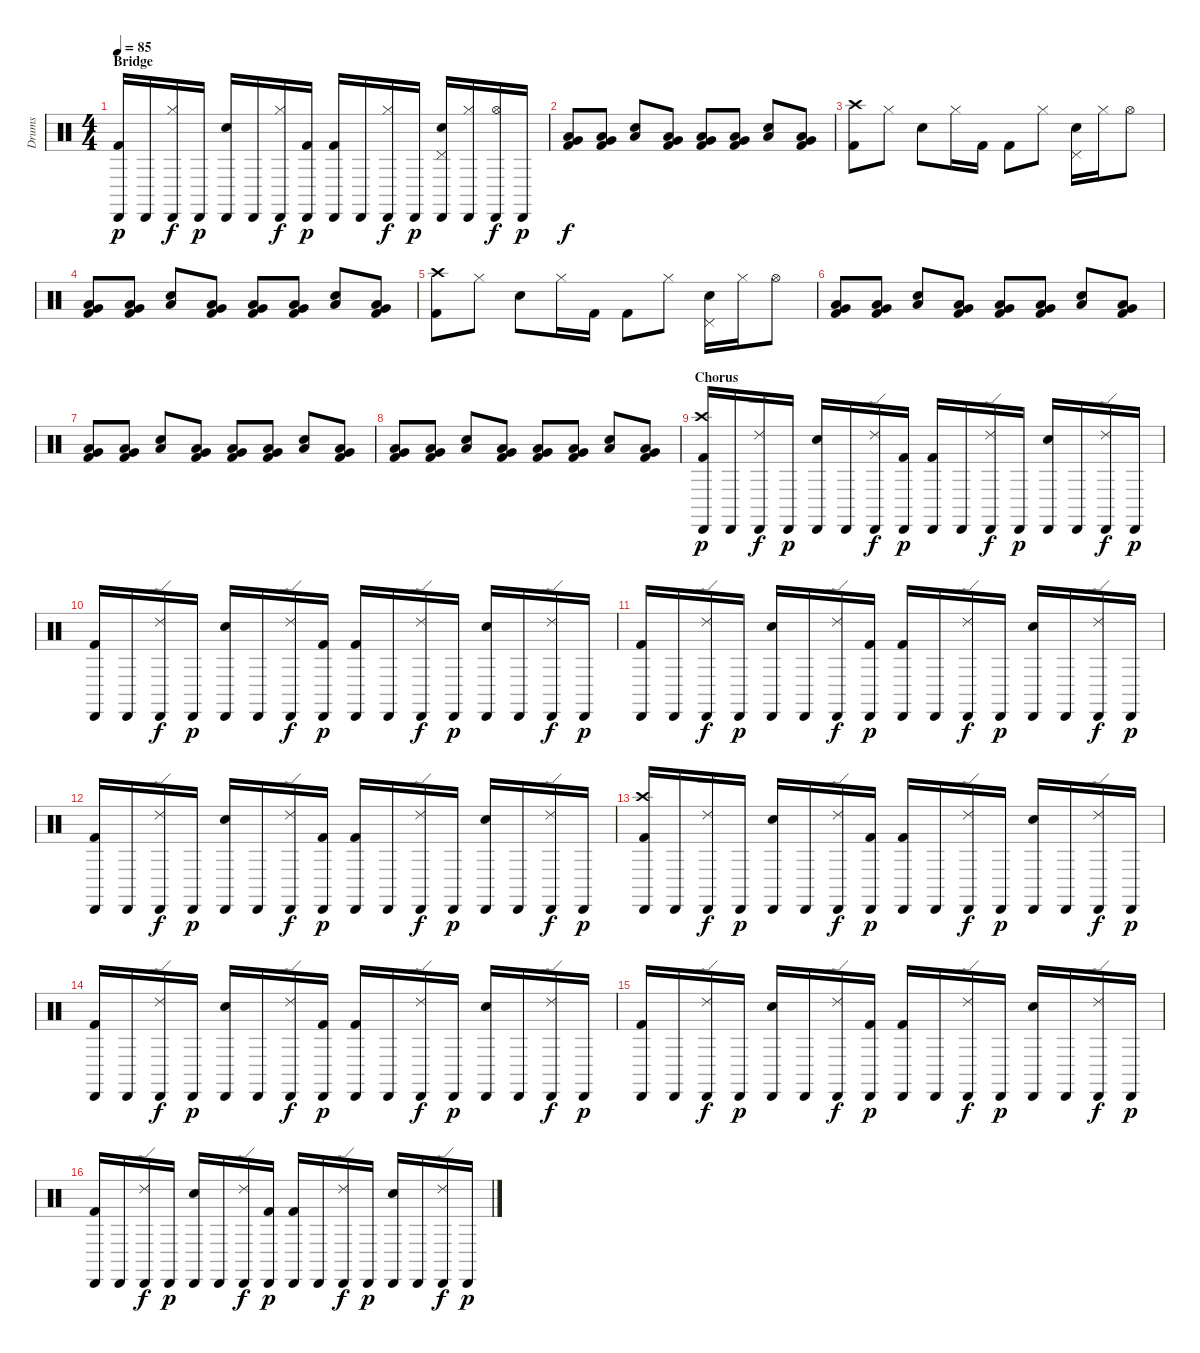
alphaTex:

\track ("Drums" "Drums") {instrument percussion}
\staff {score}
\articulation defaults
\ts (4 4)
\section ("" "Bridge")
\tempo 85
\clef neutral
\ks c
("Cabasa (hit)" "Kick (hit) 2").16{dy p} "Cabasa (hit)".16 ("Cabasa (hit)" "Hi-Hat (closed)").16{dy f} "Cabasa (hit)".16{dy p} ("Cabasa (hit)" "Electric Snare (hit)").16 "Cabasa (hit)".16 ("Cabasa (hit)" "Hi-Hat (closed)").16{dy f} ("Cabasa (hit)" "Kick (hit) 2").16{dy p} ("Cabasa (hit)" "Kick (hit) 2").16 "Cabasa (hit)".16 ("Cabasa (hit)" "Hi-Hat (closed)").16{dy f} "Cabasa (hit)".16{dy p} ("Cabasa (hit)" "Pedal Hi-Hat (hit)" "Electric Snare (hit)").16 ("Cabasa (hit)" "Hi-Hat (closed)").16 ("Cabasa (hit)" "Hi-Hat (open)").16{dy f} "Cabasa (hit)".16{dy p} |
("Low Floor Tom (hit)" "Very Low Tom (hit)" "Kick (hit) 2").8{dy f} ("Low Floor Tom (hit)" "Very Low Tom (hit)" "Kick (hit) 2").8 ("Low Floor Tom (hit)" "Electric Snare (hit)").8 ("Low Floor Tom (hit)" "Very Low Tom (hit)" "Kick (hit) 2").8 ("Low Floor Tom (hit)" "Very Low Tom (hit)" "Kick (hit) 2").8 ("Low Floor Tom (hit)" "Very Low Tom (hit)" "Kick (hit) 2").8 ("Low Floor Tom (hit)" "Electric Snare (hit)").8 ("Low Floor Tom (hit)" "Very Low Tom (hit)" "Kick (hit) 2").8 |
("Crash high (hit)" "Kick (hit) 2").8 "Hi-Hat (closed)".8 "Electric Snare (hit)".8 "Hi-Hat (closed)".16 "Kick (hit) 2".16 "Kick (hit) 2".8 "Hi-Hat (closed)".8 ("Pedal Hi-Hat (hit)" "Electric Snare (hit)").16 "Hi-Hat (closed)".16 "Hi-Hat (open)".8 |
("Low Floor Tom (hit)" "Very Low Tom (hit)" "Kick (hit) 2").8 ("Low Floor Tom (hit)" "Very Low Tom (hit)" "Kick (hit) 2").8 ("Low Floor Tom (hit)" "Electric Snare (hit)").8 ("Low Floor Tom (hit)" "Very Low Tom (hit)" "Kick (hit) 2").8 ("Low Floor Tom (hit)" "Very Low Tom (hit)" "Kick (hit) 2").8 ("Low Floor Tom (hit)" "Very Low Tom (hit)" "Kick (hit) 2").8 ("Low Floor Tom (hit)" "Electric Snare (hit)").8 ("Low Floor Tom (hit)" "Very Low Tom (hit)" "Kick (hit) 2").8 |
("Crash high (hit)" "Kick (hit) 2").8 "Hi-Hat (closed)".8 "Electric Snare (hit)".8 "Hi-Hat (closed)".16 "Kick (hit) 2".16 "Kick (hit) 2".8 "Hi-Hat (closed)".8 ("Pedal Hi-Hat (hit)" "Electric Snare (hit)").16 "Hi-Hat (closed)".16 "Hi-Hat (open)".8 |
("Low Floor Tom (hit)" "Very Low Tom (hit)" "Kick (hit) 2").8 ("Low Floor Tom (hit)" "Very Low Tom (hit)" "Kick (hit) 2").8 ("Low Floor Tom (hit)" "Electric Snare (hit)").8 ("Low Floor Tom (hit)" "Very Low Tom (hit)" "Kick (hit) 2").8 ("Low Floor Tom (hit)" "Very Low Tom (hit)" "Kick (hit) 2").8 ("Low Floor Tom (hit)" "Very Low Tom (hit)" "Kick (hit) 2").8 ("Low Floor Tom (hit)" "Electric Snare (hit)").8 ("Low Floor Tom (hit)" "Very Low Tom (hit)" "Kick (hit) 2").8 |
("Low Floor Tom (hit)" "Very Low Tom (hit)" "Kick (hit) 2").8 ("Low Floor Tom (hit)" "Very Low Tom (hit)" "Kick (hit) 2").8 ("Low Floor Tom (hit)" "Electric Snare (hit)").8 ("Low Floor Tom (hit)" "Very Low Tom (hit)" "Kick (hit) 2").8 ("Low Floor Tom (hit)" "Very Low Tom (hit)" "Kick (hit) 2").8 ("Low Floor Tom (hit)" "Very Low Tom (hit)" "Kick (hit) 2").8 ("Low Floor Tom (hit)" "Electric Snare (hit)").8 ("Low Floor Tom (hit)" "Very Low Tom (hit)" "Kick (hit) 2").8 |
("Low Floor Tom (hit)" "Very Low Tom (hit)" "Kick (hit) 2").8 ("Low Floor Tom (hit)" "Very Low Tom (hit)" "Kick (hit) 2").8 ("Low Floor Tom (hit)" "Electric Snare (hit)").8 ("Low Floor Tom (hit)" "Very Low Tom (hit)" "Kick (hit) 2").8 ("Low Floor Tom (hit)" "Very Low Tom (hit)" "Kick (hit) 2").8 ("Low Floor Tom (hit)" "Very Low Tom (hit)" "Kick (hit) 2").8 ("Low Floor Tom (hit)" "Electric Snare (hit)").8 ("Low Floor Tom (hit)" "Very Low Tom (hit)" "Kick (hit) 2").8 |
\section ("" "Chorus")
("Cabasa (hit)" "Crash high (hit)" "Kick (hit) 2").16{dy p} "Cabasa (hit)".16 ("Cabasa (hit)" "Ride (edge) 2").16{dy f} "Cabasa (hit)".16{dy p} ("Cabasa (hit)" "Electric Snare (hit)").16 "Cabasa (hit)".16 ("Cabasa (hit)" "Ride (edge) 2").16{dy f} ("Cabasa (hit)" "Kick (hit) 2").16{dy p} ("Cabasa (hit)" "Kick (hit) 2").16 "Cabasa (hit)".16 ("Cabasa (hit)" "Ride (edge) 2").16{dy f} "Cabasa (hit)".16{dy p} ("Cabasa (hit)" "Electric Snare (hit)").16 "Cabasa (hit)".16 ("Cabasa (hit)" "Ride (edge) 2").16{dy f} "Cabasa (hit)".16{dy p} |
("Cabasa (hit)" "Kick (hit) 2").16 "Cabasa (hit)".16 ("Cabasa (hit)" "Ride (edge) 2").16{dy f} "Cabasa (hit)".16{dy p} ("Cabasa (hit)" "Electric Snare (hit)").16 "Cabasa (hit)".16 ("Cabasa (hit)" "Ride (edge) 2").16{dy f} ("Cabasa (hit)" "Kick (hit) 2").16{dy p} ("Cabasa (hit)" "Kick (hit) 2").16 "Cabasa (hit)".16 ("Cabasa (hit)" "Ride (edge) 2").16{dy f} "Cabasa (hit)".16{dy p} ("Cabasa (hit)" "Electric Snare (hit)").16 "Cabasa (hit)".16 ("Cabasa (hit)" "Ride (edge) 2").16{dy f} "Cabasa (hit)".16{dy p} |
("Cabasa (hit)" "Kick (hit) 2").16 "Cabasa (hit)".16 ("Cabasa (hit)" "Ride (edge) 2").16{dy f} "Cabasa (hit)".16{dy p} ("Cabasa (hit)" "Electric Snare (hit)").16 "Cabasa (hit)".16 ("Cabasa (hit)" "Ride (edge) 2").16{dy f} ("Cabasa (hit)" "Kick (hit) 2").16{dy p} ("Cabasa (hit)" "Kick (hit) 2").16 "Cabasa (hit)".16 ("Cabasa (hit)" "Ride (edge) 2").16{dy f} "Cabasa (hit)".16{dy p} ("Cabasa (hit)" "Electric Snare (hit)").16 "Cabasa (hit)".16 ("Cabasa (hit)" "Ride (edge) 2").16{dy f} "Cabasa (hit)".16{dy p} |
("Cabasa (hit)" "Kick (hit) 2").16 "Cabasa (hit)".16 ("Cabasa (hit)" "Ride (edge) 2").16{dy f} "Cabasa (hit)".16{dy p} ("Cabasa (hit)" "Electric Snare (hit)").16 "Cabasa (hit)".16 ("Cabasa (hit)" "Ride (edge) 2").16{dy f} ("Cabasa (hit)" "Kick (hit) 2").16{dy p} ("Cabasa (hit)" "Kick (hit) 2").16 "Cabasa (hit)".16 ("Cabasa (hit)" "Ride (edge) 2").16{dy f} "Cabasa (hit)".16{dy p} ("Cabasa (hit)" "Electric Snare (hit)").16 "Cabasa (hit)".16 ("Cabasa (hit)" "Ride (edge) 2").16{dy f} "Cabasa (hit)".16{dy p} |
("Cabasa (hit)" "Crash high (hit)" "Kick (hit) 2").16 "Cabasa (hit)".16 ("Cabasa (hit)" "Ride (edge) 2").16{dy f} "Cabasa (hit)".16{dy p} ("Cabasa (hit)" "Electric Snare (hit)").16 "Cabasa (hit)".16 ("Cabasa (hit)" "Ride (edge) 2").16{dy f} ("Cabasa (hit)" "Kick (hit) 2").16{dy p} ("Cabasa (hit)" "Kick (hit) 2").16 "Cabasa (hit)".16 ("Cabasa (hit)" "Ride (edge) 2").16{dy f} "Cabasa (hit)".16{dy p} ("Cabasa (hit)" "Electric Snare (hit)").16 "Cabasa (hit)".16 ("Cabasa (hit)" "Ride (edge) 2").16{dy f} "Cabasa (hit)".16{dy p} |
("Cabasa (hit)" "Kick (hit) 2").16 "Cabasa (hit)".16 ("Cabasa (hit)" "Ride (edge) 2").16{dy f} "Cabasa (hit)".16{dy p} ("Cabasa (hit)" "Electric Snare (hit)").16 "Cabasa (hit)".16 ("Cabasa (hit)" "Ride (edge) 2").16{dy f} ("Cabasa (hit)" "Kick (hit) 2").16{dy p} ("Cabasa (hit)" "Kick (hit) 2").16 "Cabasa (hit)".16 ("Cabasa (hit)" "Ride (edge) 2").16{dy f} "Cabasa (hit)".16{dy p} ("Cabasa (hit)" "Electric Snare (hit)").16 "Cabasa (hit)".16 ("Cabasa (hit)" "Ride (edge) 2").16{dy f} "Cabasa (hit)".16{dy p} |
("Cabasa (hit)" "Kick (hit) 2").16 "Cabasa (hit)".16 ("Cabasa (hit)" "Ride (edge) 2").16{dy f} "Cabasa (hit)".16{dy p} ("Cabasa (hit)" "Electric Snare (hit)").16 "Cabasa (hit)".16 ("Cabasa (hit)" "Ride (edge) 2").16{dy f} ("Cabasa (hit)" "Kick (hit) 2").16{dy p} ("Cabasa (hit)" "Kick (hit) 2").16 "Cabasa (hit)".16 ("Cabasa (hit)" "Ride (edge) 2").16{dy f} "Cabasa (hit)".16{dy p} ("Cabasa (hit)" "Electric Snare (hit)").16 "Cabasa (hit)".16 ("Cabasa (hit)" "Ride (edge) 2").16{dy f} "Cabasa (hit)".16{dy p} |
("Cabasa (hit)" "Kick (hit) 2").16 "Cabasa (hit)".16 ("Cabasa (hit)" "Ride (edge) 2").16{dy f} "Cabasa (hit)".16{dy p} ("Cabasa (hit)" "Electric Snare (hit)").16 "Cabasa (hit)".16 ("Cabasa (hit)" "Ride (edge) 2").16{dy f} ("Cabasa (hit)" "Kick (hit) 2").16{dy p} ("Cabasa (hit)" "Kick (hit) 2").16 "Cabasa (hit)".16 ("Cabasa (hit)" "Ride (edge) 2").16{dy f} "Cabasa (hit)".16{dy p} ("Cabasa (hit)" "Electric Snare (hit)").16 "Cabasa (hit)".16 ("Cabasa (hit)" "Ride (edge) 2").16{dy f} "Cabasa (hit)".16{dy p}
